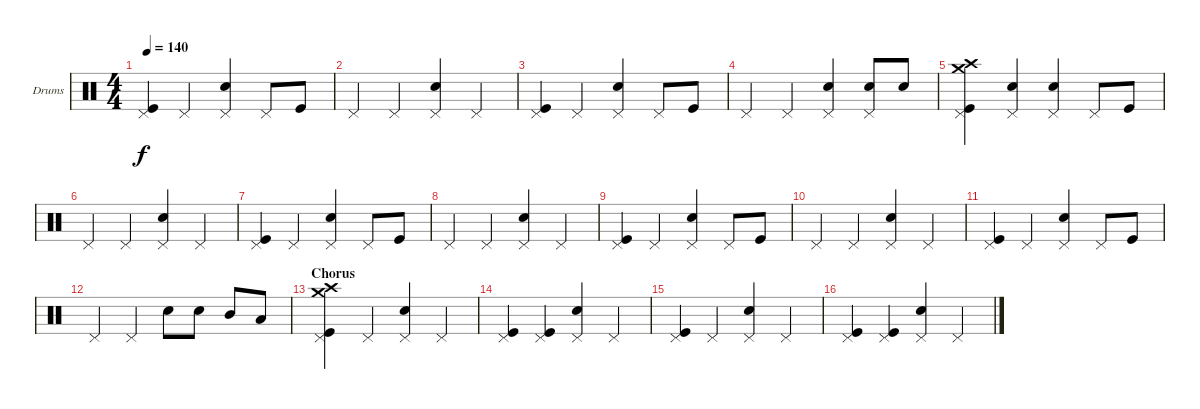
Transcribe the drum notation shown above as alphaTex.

\bracketExtendMode groupsimilarinstruments
\firstSystemTrackNameOrientation horizontal
\otherSystemsTrackNameOrientation horizontal
\track ("Drumkit" "Drums") {instrument percussion}
\staff {score}
\articulation defaults
\ts (4 4)
\tempo 140
\clef neutral
\ks c
("Pedal Hi-Hat (hit)" "Kick (hit)").4{dy f} "Pedal Hi-Hat (hit)".4 ("Pedal Hi-Hat (hit)" "Snare (hit) 2").4 "Pedal Hi-Hat (hit)".8 "Kick (hit)".8 |
"Pedal Hi-Hat (hit)".4 "Pedal Hi-Hat (hit)".4 ("Pedal Hi-Hat (hit)" "Snare (hit) 2").4 "Pedal Hi-Hat (hit)".4 |
("Pedal Hi-Hat (hit)" "Kick (hit)").4 "Pedal Hi-Hat (hit)".4 ("Pedal Hi-Hat (hit)" "Snare (hit) 2").4 "Pedal Hi-Hat (hit)".8 "Kick (hit)".8 |
"Pedal Hi-Hat (hit)".4 "Pedal Hi-Hat (hit)".4 ("Pedal Hi-Hat (hit)" "Snare (hit) 2").4 ("Pedal Hi-Hat (hit)" "Snare (hit) 2").8 "Snare (hit) 2".8 |
("Crash high (hit)" "Pedal Hi-Hat (hit)" "Crash medium (hit)" "Kick (hit)").4 ("Pedal Hi-Hat (hit)" "Snare (hit) 2").4 ("Pedal Hi-Hat (hit)" "Snare (hit) 2").4 "Pedal Hi-Hat (hit)".8 "Kick (hit)".8 |
"Pedal Hi-Hat (hit)".4 "Pedal Hi-Hat (hit)".4 ("Pedal Hi-Hat (hit)" "Snare (hit) 2").4 "Pedal Hi-Hat (hit)".4 |
("Pedal Hi-Hat (hit)" "Kick (hit)").4 "Pedal Hi-Hat (hit)".4 ("Pedal Hi-Hat (hit)" "Snare (hit) 2").4 "Pedal Hi-Hat (hit)".8 "Kick (hit)".8 |
"Pedal Hi-Hat (hit)".4 "Pedal Hi-Hat (hit)".4 ("Pedal Hi-Hat (hit)" "Snare (hit) 2").4 "Pedal Hi-Hat (hit)".4 |
("Pedal Hi-Hat (hit)" "Kick (hit)").4 "Pedal Hi-Hat (hit)".4 ("Pedal Hi-Hat (hit)" "Snare (hit) 2").4 "Pedal Hi-Hat (hit)".8 "Kick (hit)".8 |
"Pedal Hi-Hat (hit)".4 "Pedal Hi-Hat (hit)".4 ("Pedal Hi-Hat (hit)" "Snare (hit) 2").4 "Pedal Hi-Hat (hit)".4 |
("Pedal Hi-Hat (hit)" "Kick (hit)").4 "Pedal Hi-Hat (hit)".4 ("Pedal Hi-Hat (hit)" "Snare (hit) 2").4 "Pedal Hi-Hat (hit)".8 "Kick (hit)".8 |
"Pedal Hi-Hat (hit)".4 "Pedal Hi-Hat (hit)".4 "Snare (hit) 2".8 "Snare (hit) 2".8 "Mid Tom (hit)".8 "Low Tom (hit)".8 |
\section ("" "Chorus")
("Crash medium (hit)" "Pedal Hi-Hat (hit)" "Crash high (hit)" "Kick (hit)").4 "Pedal Hi-Hat (hit)".4 ("Pedal Hi-Hat (hit)" "Snare (hit) 2").4 "Pedal Hi-Hat (hit)".4 |
("Pedal Hi-Hat (hit)" "Kick (hit)").4 ("Pedal Hi-Hat (hit)" "Kick (hit)").4 ("Pedal Hi-Hat (hit)" "Snare (hit) 2").4 "Pedal Hi-Hat (hit)".4 |
("Pedal Hi-Hat (hit)" "Kick (hit)").4 "Pedal Hi-Hat (hit)".4 ("Pedal Hi-Hat (hit)" "Snare (hit) 2").4 "Pedal Hi-Hat (hit)".4 |
("Pedal Hi-Hat (hit)" "Kick (hit)").4 ("Pedal Hi-Hat (hit)" "Kick (hit)").4 ("Pedal Hi-Hat (hit)" "Snare (hit) 2").4 "Pedal Hi-Hat (hit)".4
